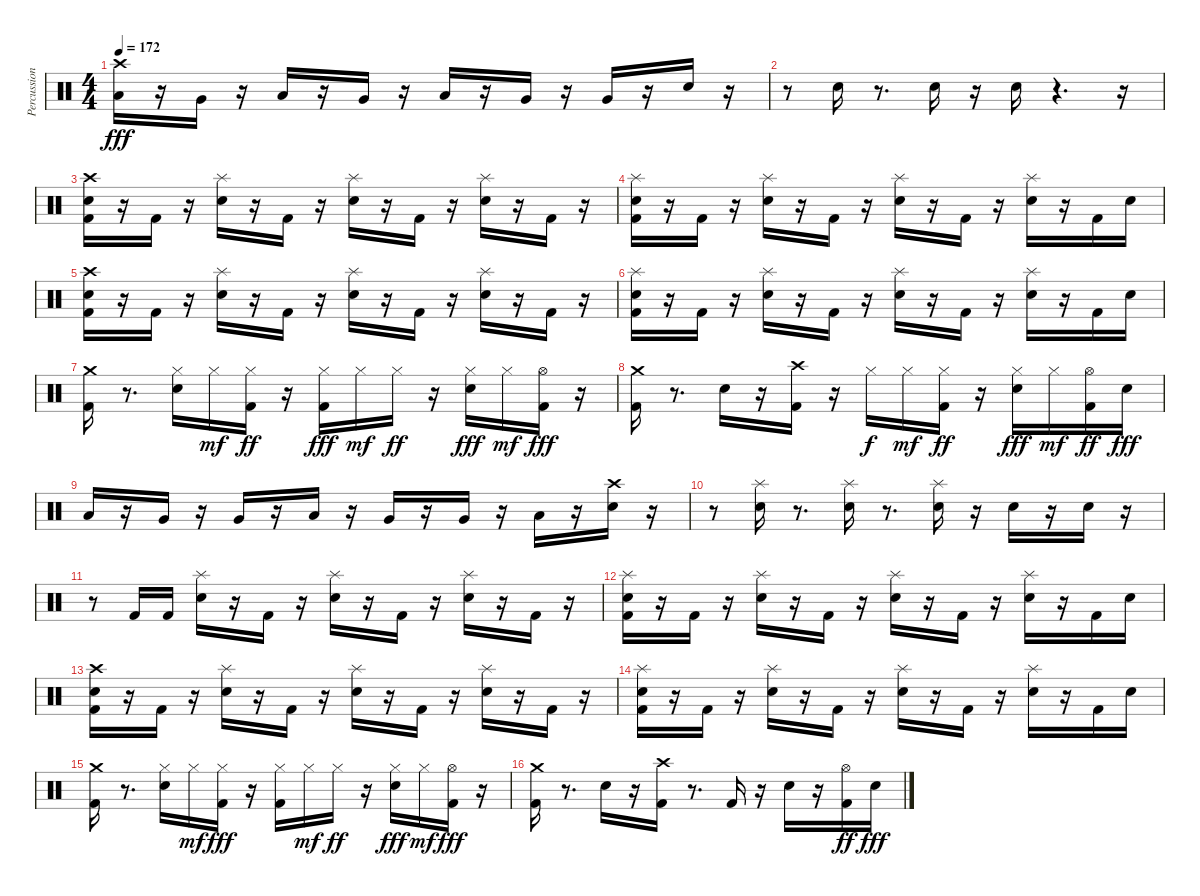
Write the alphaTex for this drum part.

\track ("Percussion" "Percussion") {instrument percussion}
\staff {score}
\articulation defaults
\ts (4 4)
\tempo 172
\clef neutral
\ks c
("Low Tom (hit)" "Crash high (hit)").16{dy fff} r.16 "Very Low Tom (hit)".16 r.16 "Low Tom (hit)".16 r.16 "Very Low Tom (hit)".16 r.16 "Low Tom (hit)".16 r.16 "Very Low Tom (hit)".16 r.16 "Very Low Tom (hit)".16 r.16 "Snare (hit) 2".16 r.16 |
r.8 "Snare (hit) 2".16 r.8{d} "Snare (hit) 2".16 r.16 "Snare (hit) 2".16 r.4{d} r.16 |
("Crash high (hit)" "Kick (hit) 2" "Snare (hit) 2").16 r.16 "Kick (hit) 2".16 r.16 ("Snare (hit) 2" "Splash (hit)").16 r.16 "Kick (hit) 2".16 r.16 ("Snare (hit) 2" "Splash (hit)").16 r.16 "Kick (hit) 2".16 r.16 ("Splash (hit)" "Snare (hit) 2").16 r.16 "Kick (hit) 2".16 r.16 |
("Snare (hit) 2" "Kick (hit) 2" "Splash (hit)").16 r.16 "Kick (hit) 2".16 r.16 ("Snare (hit) 2" "Splash (hit)").16 r.16 "Kick (hit) 2".16 r.16 ("Snare (hit) 2" "Splash (hit)").16 r.16 "Kick (hit) 2".16 r.16 ("Snare (hit) 2" "Splash (hit)").16 r.16 "Kick (hit) 2".16 "Snare (hit) 2".16 |
("Crash high (hit)" "Kick (hit) 2" "Snare (hit) 2").16 r.16 "Kick (hit) 2".16 r.16 ("Snare (hit) 2" "Splash (hit)").16 r.16 "Kick (hit) 2".16 r.16 ("Snare (hit) 2" "Splash (hit)").16 r.16 "Kick (hit) 2".16 r.16 ("Snare (hit) 2" "Splash (hit)").16 r.16 "Kick (hit) 2".16 r.16 |
("Snare (hit) 2" "Kick (hit) 2" "Splash (hit)").16 r.16 "Kick (hit) 2".16 r.16 ("Splash (hit)" "Snare (hit) 2").16 r.16 "Kick (hit) 2".16 r.16 ("Snare (hit) 2" "Splash (hit)").16 r.16 "Kick (hit) 2".16 r.16 ("Snare (hit) 2" "Splash (hit)").16 r.16 "Kick (hit) 2".16 "Snare (hit) 2".16 |
("Kick (hit) 2" "Crash medium (hit)").16 r.8{d} ("Snare (hit) 2" "Hi-Hat (closed)").16 "Hi-Hat (closed)".16{dy mf} ("Kick (hit) 2" "Hi-Hat (closed)").16{dy ff} r.16 ("Hi-Hat (closed)" "Kick (hit) 2").16{dy fff} "Hi-Hat (closed)".16{dy mf} "Hi-Hat (closed)".16{dy ff} r.16 ("Snare (hit) 2" "Hi-Hat (closed)").16{dy fff} "Hi-Hat (closed)".16{dy mf} ("Hi-Hat (open)" "Kick (hit) 2").16{dy fff} r.16 |
("Kick (hit) 2" "Crash medium (hit)").16 r.8{d} "Snare (hit) 2".16 r.16 ("Kick (hit) 2" "Crash high (hit)").16 r.16 "Hi-Hat (closed)".16{dy f} "Hi-Hat (closed)".16{dy mf} ("Kick (hit) 2" "Hi-Hat (closed)").16{dy ff} r.16 ("Snare (hit) 2" "Hi-Hat (closed)").16{dy fff} "Hi-Hat (closed)".16{dy mf} ("Kick (hit) 2" "Hi-Hat (open)").16{dy ff} "Snare (hit) 2".16{dy fff} |
"Low Tom (hit)".16 r.16 "Very Low Tom (hit)".16 r.16 "Very Low Tom (hit)".16 r.16 "Low Tom (hit)".16 r.16 "Very Low Tom (hit)".16 r.16 "Very Low Tom (hit)".16 r.16 "Low Tom (hit)".16 r.16 ("Crash high (hit)" "Snare (hit) 2").16 r.16 |
r.8 ("Splash (hit)" "Snare (hit) 2").16 r.8{d} ("Splash (hit)" "Snare (hit) 2").16 r.8{d} ("Snare (hit) 2" "Splash (hit)").16 r.16 "Snare (hit) 2".16 r.16 "Snare (hit) 2".16 r.16 |
r.8 "Kick (hit) 2".16 "Kick (hit) 2".16 ("Snare (hit) 2" "Splash (hit)").16 r.16 "Kick (hit) 2".16 r.16 ("Splash (hit)" "Snare (hit) 2").16 r.16 "Kick (hit) 2".16 r.16 ("Snare (hit) 2" "Splash (hit)").16 r.16 "Kick (hit) 2".16 r.16 |
("Snare (hit) 2" "Kick (hit) 2" "Splash (hit)").16 r.16 "Kick (hit) 2".16 r.16 ("Snare (hit) 2" "Splash (hit)").16 r.16 "Kick (hit) 2".16 r.16 ("Snare (hit) 2" "Splash (hit)").16 r.16 "Kick (hit) 2".16 r.16 ("Snare (hit) 2" "Splash (hit)").16 r.16 "Kick (hit) 2".16 "Snare (hit) 2".16 |
("Crash high (hit)" "Kick (hit) 2" "Snare (hit) 2").16 r.16 "Kick (hit) 2".16 r.16 ("Snare (hit) 2" "Splash (hit)").16 r.16 "Kick (hit) 2".16 r.16 ("Snare (hit) 2" "Splash (hit)").16 r.16 "Kick (hit) 2".16 r.16 ("Splash (hit)" "Snare (hit) 2").16 r.16 "Kick (hit) 2".16 r.16 |
("Snare (hit) 2" "Kick (hit) 2" "Splash (hit)").16 r.16 "Kick (hit) 2".16 r.16 ("Splash (hit)" "Snare (hit) 2").16 r.16 "Kick (hit) 2".16 r.16 ("Splash (hit)" "Snare (hit) 2").16 r.16 "Kick (hit) 2".16 r.16 ("Snare (hit) 2" "Splash (hit)").16 r.16 "Kick (hit) 2".16 "Snare (hit) 2".16 |
("Crash medium (hit)" "Kick (hit) 2").16 r.8{d} ("Snare (hit) 2" "Hi-Hat (closed)").16 "Hi-Hat (closed)".16{dy mf} ("Hi-Hat (closed)" "Kick (hit) 2").16{dy fff} r.16 ("Kick (hit) 2" "Hi-Hat (closed)").16 "Hi-Hat (closed)".16{dy mf} "Hi-Hat (closed)".16{dy ff} r.16 ("Snare (hit) 2" "Hi-Hat (closed)").16{dy fff} "Hi-Hat (closed)".16{dy mf} ("Hi-Hat (open)" "Kick (hit) 2").16{dy fff} r.16 |
("Crash medium (hit)" "Kick (hit) 2").16 r.8{d} "Snare (hit) 2".16 r.16 ("Kick (hit) 2" "Crash high (hit)").16 r.8{d} "Kick (hit) 2".16 r.16 "Snare (hit) 2".16 r.16 ("Kick (hit) 2" "Hi-Hat (open)").16{dy ff} "Snare (hit) 2".16{dy fff}
